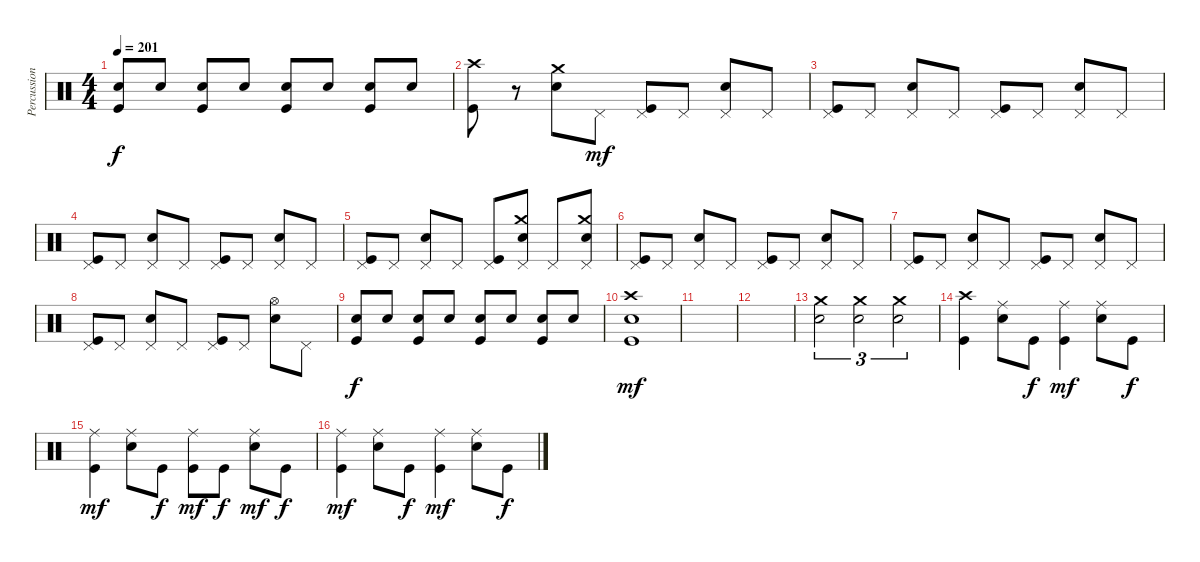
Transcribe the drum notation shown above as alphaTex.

\track ("Percussion" "Percussion") {instrument percussion}
\staff {score}
\articulation defaults
\ts (4 4)
\tempo 201
\clef neutral
\ks c
("Electric Snare (hit)" "Kick (hit)").8{dy f} "Electric Snare (hit)".8 ("Electric Snare (hit)" "Kick (hit)").8 "Electric Snare (hit)".8 ("Electric Snare (hit)" "Kick (hit)").8 "Electric Snare (hit)".8 ("Electric Snare (hit)" "Kick (hit)").8 "Electric Snare (hit)".8 |
("Crash high (hit)" "Kick (hit)").8 r.8 ("Crash medium (hit)" "Electric Snare (hit)").8 "Pedal Hi-Hat (hit)".8{dy mf} ("Pedal Hi-Hat (hit)" "Kick (hit)").8 "Pedal Hi-Hat (hit)".8 ("Pedal Hi-Hat (hit)" "Electric Snare (hit)").8 "Pedal Hi-Hat (hit)".8 |
("Pedal Hi-Hat (hit)" "Kick (hit)").8 "Pedal Hi-Hat (hit)".8 ("Pedal Hi-Hat (hit)" "Electric Snare (hit)").8 "Pedal Hi-Hat (hit)".8 ("Pedal Hi-Hat (hit)" "Kick (hit)").8 "Pedal Hi-Hat (hit)".8 ("Pedal Hi-Hat (hit)" "Electric Snare (hit)").8 "Pedal Hi-Hat (hit)".8 |
("Pedal Hi-Hat (hit)" "Kick (hit)").8 "Pedal Hi-Hat (hit)".8 ("Pedal Hi-Hat (hit)" "Electric Snare (hit)").8 "Pedal Hi-Hat (hit)".8 ("Pedal Hi-Hat (hit)" "Kick (hit)").8 "Pedal Hi-Hat (hit)".8 ("Pedal Hi-Hat (hit)" "Electric Snare (hit)").8 "Pedal Hi-Hat (hit)".8 |
("Pedal Hi-Hat (hit)" "Kick (hit)").8 "Pedal Hi-Hat (hit)".8 ("Pedal Hi-Hat (hit)" "Electric Snare (hit)").8 "Pedal Hi-Hat (hit)".8 ("Pedal Hi-Hat (hit)" "Kick (hit)").8 ("Crash medium (hit)" "Pedal Hi-Hat (hit)" "Electric Snare (hit)").8 "Pedal Hi-Hat (hit)".8 ("Crash medium (hit)" "Pedal Hi-Hat (hit)" "Electric Snare (hit)").8 |
("Pedal Hi-Hat (hit)" "Kick (hit)").8 "Pedal Hi-Hat (hit)".8 ("Pedal Hi-Hat (hit)" "Electric Snare (hit)").8 "Pedal Hi-Hat (hit)".8 ("Pedal Hi-Hat (hit)" "Kick (hit)").8 "Pedal Hi-Hat (hit)".8 ("Pedal Hi-Hat (hit)" "Electric Snare (hit)").8 "Pedal Hi-Hat (hit)".8 |
("Pedal Hi-Hat (hit)" "Kick (hit)").8 "Pedal Hi-Hat (hit)".8 ("Pedal Hi-Hat (hit)" "Electric Snare (hit)").8 "Pedal Hi-Hat (hit)".8 ("Pedal Hi-Hat (hit)" "Kick (hit)").8 "Pedal Hi-Hat (hit)".8 ("Pedal Hi-Hat (hit)" "Electric Snare (hit)").8 "Pedal Hi-Hat (hit)".8 |
("Pedal Hi-Hat (hit)" "Kick (hit)").8 "Pedal Hi-Hat (hit)".8 ("Pedal Hi-Hat (hit)" "Electric Snare (hit)").8 "Pedal Hi-Hat (hit)".8 ("Pedal Hi-Hat (hit)" "Kick (hit)").8 "Pedal Hi-Hat (hit)".8 ("Hi-Hat (open)" "Electric Snare (hit)").8 "Pedal Hi-Hat (hit)".8 |
("Electric Snare (hit)" "Kick (hit)").8{dy f} "Electric Snare (hit)".8 ("Electric Snare (hit)" "Kick (hit)").8 "Electric Snare (hit)".8 ("Electric Snare (hit)" "Kick (hit)").8 "Electric Snare (hit)".8 ("Electric Snare (hit)" "Kick (hit)").8 "Electric Snare (hit)".8 |
("Crash high (hit)" "Electric Snare (hit)" "Kick (hit)").1{dy mf} |
|
|
("Crash medium (hit)" "Electric Snare (hit)").2{tu (3 2)} ("Crash medium (hit)" "Electric Snare (hit)").2{tu (3 2)} ("Crash medium (hit)" "Electric Snare (hit)").2{tu (3 2)} |
("Crash high (hit)" "Kick (hit)").4 ("Ride (middle)" "Electric Snare (hit)").8 "Kick (hit)".8{dy f} ("Ride (middle)" "Kick (hit)").4{dy mf} ("Ride (middle)" "Electric Snare (hit)").8 "Kick (hit)".8{dy f} |
("Ride (middle)" "Kick (hit)").4{dy mf} ("Ride (middle)" "Electric Snare (hit)").8 "Kick (hit)".8{dy f} ("Ride (middle)" "Kick (hit)").8{dy mf} "Kick (hit)".8{dy f} ("Ride (middle)" "Electric Snare (hit)").8{dy mf} "Kick (hit)".8{dy f} |
("Ride (middle)" "Kick (hit)").4{dy mf} ("Ride (middle)" "Electric Snare (hit)").8 "Kick (hit)".8{dy f} ("Ride (middle)" "Kick (hit)").4{dy mf} ("Ride (middle)" "Electric Snare (hit)").8 "Kick (hit)".8{dy f}
